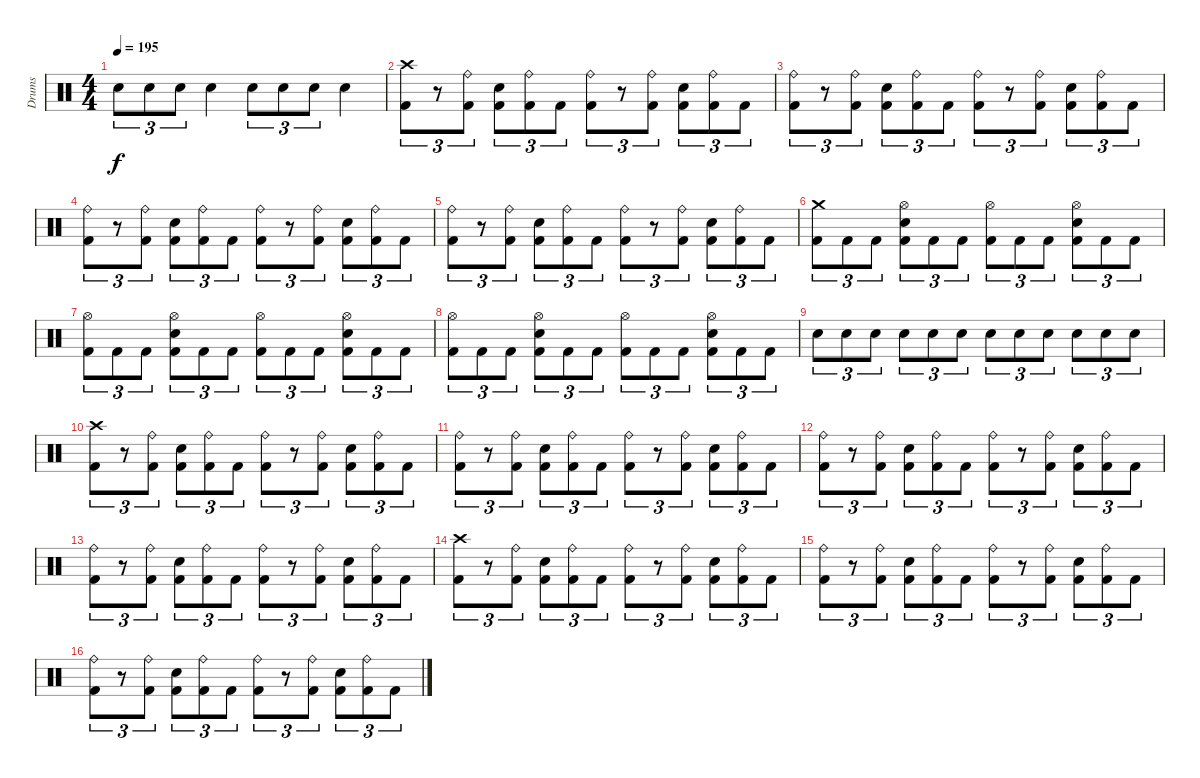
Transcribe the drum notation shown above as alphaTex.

\track ("Drums" "Drums") {instrument percussion}
\staff {score}
\articulation defaults
\ts (4 4)
\tempo 195
\clef neutral
\ks aminor "Electric Snare (hit)".8{tu (3 2) dy f} "Electric Snare (hit)".8{tu (3 2)} "Electric Snare (hit)".8{tu (3 2)} "Electric Snare (hit)".4 "Electric Snare (hit)".8{tu (3 2)} "Electric Snare (hit)".8{tu (3 2)} "Electric Snare (hit)".8{tu (3 2)} "Electric Snare (hit)".4
|
\section ("" "")
("Kick (hit) 2" "Crash high (hit)").8{tu (3 2)} r.8{tu (3 2)} ("Kick (hit) 2" "Ride (bell)").8{tu (3 2)} ("Kick (hit) 2" "Electric Snare (hit)").8{tu (3 2)} ("Kick (hit) 2" "Ride (bell)").8{tu (3 2)} "Kick (hit) 2".8{tu (3 2)} ("Kick (hit) 2" "Ride (bell)").8{tu (3 2)} r.8{tu (3 2)} ("Kick (hit) 2" "Ride (bell)").8{tu (3 2)} ("Kick (hit) 2" "Electric Snare (hit)").8{tu (3 2)} ("Kick (hit) 2" "Ride (bell)").8{tu (3 2)} "Kick (hit) 2".8{tu (3 2)} |
("Kick (hit) 2" "Ride (bell)").8{tu (3 2)} r.8{tu (3 2)} ("Kick (hit) 2" "Ride (bell)").8{tu (3 2)} ("Kick (hit) 2" "Electric Snare (hit)").8{tu (3 2)} ("Kick (hit) 2" "Ride (bell)").8{tu (3 2)} "Kick (hit) 2".8{tu (3 2)} ("Kick (hit) 2" "Ride (bell)").8{tu (3 2)} r.8{tu (3 2)} ("Kick (hit) 2" "Ride (bell)").8{tu (3 2)} ("Kick (hit) 2" "Electric Snare (hit)").8{tu (3 2)} ("Kick (hit) 2" "Ride (bell)").8{tu (3 2)} "Kick (hit) 2".8{tu (3 2)} |
("Kick (hit) 2" "Ride (bell)").8{tu (3 2)} r.8{tu (3 2)} ("Kick (hit) 2" "Ride (bell)").8{tu (3 2)} ("Kick (hit) 2" "Electric Snare (hit)").8{tu (3 2)} ("Kick (hit) 2" "Ride (bell)").8{tu (3 2)} "Kick (hit) 2".8{tu (3 2)} ("Kick (hit) 2" "Ride (bell)").8{tu (3 2)} r.8{tu (3 2)} ("Kick (hit) 2" "Ride (bell)").8{tu (3 2)} ("Kick (hit) 2" "Electric Snare (hit)").8{tu (3 2)} ("Kick (hit) 2" "Ride (bell)").8{tu (3 2)} "Kick (hit) 2".8{tu (3 2)} |
("Kick (hit) 2" "Ride (bell)").8{tu (3 2)} r.8{tu (3 2)} ("Kick (hit) 2" "Ride (bell)").8{tu (3 2)} ("Kick (hit) 2" "Electric Snare (hit)").8{tu (3 2)} ("Kick (hit) 2" "Ride (bell)").8{tu (3 2)} "Kick (hit) 2".8{tu (3 2)} ("Kick (hit) 2" "Ride (bell)").8{tu (3 2)} r.8{tu (3 2)} ("Kick (hit) 2" "Ride (bell)").8{tu (3 2)} ("Kick (hit) 2" "Electric Snare (hit)").8{tu (3 2)} ("Kick (hit) 2" "Ride (bell)").8{tu (3 2)} "Kick (hit) 2".8{tu (3 2)} |
("Kick (hit) 2" "Crash medium (hit)").8{tu (3 2)} "Kick (hit) 2".8{tu (3 2)} "Kick (hit) 2".8{tu (3 2)} ("Kick (hit) 2" "Electric Snare (hit)" "Hi-Hat (open)").8{tu (3 2)} "Kick (hit) 2".8{tu (3 2)} "Kick (hit) 2".8{tu (3 2)} ("Kick (hit) 2" "Hi-Hat (open)").8{tu (3 2)} "Kick (hit) 2".8{tu (3 2)} "Kick (hit) 2".8{tu (3 2)} ("Kick (hit) 2" "Electric Snare (hit)" "Hi-Hat (open)").8{tu (3 2)} "Kick (hit) 2".8{tu (3 2)} "Kick (hit) 2".8{tu (3 2)} |
("Kick (hit) 2" "Hi-Hat (open)").8{tu (3 2)} "Kick (hit) 2".8{tu (3 2)} "Kick (hit) 2".8{tu (3 2)} ("Kick (hit) 2" "Electric Snare (hit)" "Hi-Hat (open)").8{tu (3 2)} "Kick (hit) 2".8{tu (3 2)} "Kick (hit) 2".8{tu (3 2)} ("Kick (hit) 2" "Hi-Hat (open)").8{tu (3 2)} "Kick (hit) 2".8{tu (3 2)} "Kick (hit) 2".8{tu (3 2)} ("Kick (hit) 2" "Electric Snare (hit)" "Hi-Hat (open)").8{tu (3 2)} "Kick (hit) 2".8{tu (3 2)} "Kick (hit) 2".8{tu (3 2)} |
("Kick (hit) 2" "Hi-Hat (open)").8{tu (3 2)} "Kick (hit) 2".8{tu (3 2)} "Kick (hit) 2".8{tu (3 2)} ("Kick (hit) 2" "Electric Snare (hit)" "Hi-Hat (open)").8{tu (3 2)} "Kick (hit) 2".8{tu (3 2)} "Kick (hit) 2".8{tu (3 2)} ("Kick (hit) 2" "Hi-Hat (open)").8{tu (3 2)} "Kick (hit) 2".8{tu (3 2)} "Kick (hit) 2".8{tu (3 2)} ("Kick (hit) 2" "Electric Snare (hit)" "Hi-Hat (open)").8{tu (3 2)} "Kick (hit) 2".8{tu (3 2)} "Kick (hit) 2".8{tu (3 2)} |
"Electric Snare (hit)".8{tu (3 2)} "Electric Snare (hit)".8{tu (3 2)} "Electric Snare (hit)".8{tu (3 2)} "Electric Snare (hit)".8{tu (3 2)} "Electric Snare (hit)".8{tu (3 2)} "Electric Snare (hit)".8{tu (3 2)} "Electric Snare (hit)".8{tu (3 2)} "Electric Snare (hit)".8{tu (3 2)} "Electric Snare (hit)".8{tu (3 2)} "Electric Snare (hit)".8{tu (3 2)} "Electric Snare (hit)".8{tu (3 2)} "Electric Snare (hit)".8{tu (3 2)} |
\section ("" "")
("Kick (hit) 2" "Crash high (hit)").8{tu (3 2)} r.8{tu (3 2)} ("Kick (hit) 2" "Ride (bell)").8{tu (3 2)} ("Kick (hit) 2" "Electric Snare (hit)").8{tu (3 2)} ("Kick (hit) 2" "Ride (bell)").8{tu (3 2)} "Kick (hit) 2".8{tu (3 2)} ("Kick (hit) 2" "Ride (bell)").8{tu (3 2)} r.8{tu (3 2)} ("Kick (hit) 2" "Ride (bell)").8{tu (3 2)} ("Kick (hit) 2" "Electric Snare (hit)").8{tu (3 2)} ("Kick (hit) 2" "Ride (bell)").8{tu (3 2)} "Kick (hit) 2".8{tu (3 2)} |
("Kick (hit) 2" "Ride (bell)").8{tu (3 2)} r.8{tu (3 2)} ("Kick (hit) 2" "Ride (bell)").8{tu (3 2)} ("Kick (hit) 2" "Electric Snare (hit)").8{tu (3 2)} ("Kick (hit) 2" "Ride (bell)").8{tu (3 2)} "Kick (hit) 2".8{tu (3 2)} ("Kick (hit) 2" "Ride (bell)").8{tu (3 2)} r.8{tu (3 2)} ("Kick (hit) 2" "Ride (bell)").8{tu (3 2)} ("Kick (hit) 2" "Electric Snare (hit)").8{tu (3 2)} ("Kick (hit) 2" "Ride (bell)").8{tu (3 2)} "Kick (hit) 2".8{tu (3 2)} |
("Kick (hit) 2" "Ride (bell)").8{tu (3 2)} r.8{tu (3 2)} ("Kick (hit) 2" "Ride (bell)").8{tu (3 2)} ("Kick (hit) 2" "Electric Snare (hit)").8{tu (3 2)} ("Kick (hit) 2" "Ride (bell)").8{tu (3 2)} "Kick (hit) 2".8{tu (3 2)} ("Kick (hit) 2" "Ride (bell)").8{tu (3 2)} r.8{tu (3 2)} ("Kick (hit) 2" "Ride (bell)").8{tu (3 2)} ("Kick (hit) 2" "Electric Snare (hit)").8{tu (3 2)} ("Kick (hit) 2" "Ride (bell)").8{tu (3 2)} "Kick (hit) 2".8{tu (3 2)} |
("Kick (hit) 2" "Ride (bell)").8{tu (3 2)} r.8{tu (3 2)} ("Kick (hit) 2" "Ride (bell)").8{tu (3 2)} ("Kick (hit) 2" "Electric Snare (hit)").8{tu (3 2)} ("Kick (hit) 2" "Ride (bell)").8{tu (3 2)} "Kick (hit) 2".8{tu (3 2)} ("Kick (hit) 2" "Ride (bell)").8{tu (3 2)} r.8{tu (3 2)} ("Kick (hit) 2" "Ride (bell)").8{tu (3 2)} ("Kick (hit) 2" "Electric Snare (hit)").8{tu (3 2)} ("Kick (hit) 2" "Ride (bell)").8{tu (3 2)} "Kick (hit) 2".8{tu (3 2)} |
("Kick (hit) 2" "Crash high (hit)").8{tu (3 2)} r.8{tu (3 2)} ("Kick (hit) 2" "Ride (bell)").8{tu (3 2)} ("Kick (hit) 2" "Electric Snare (hit)").8{tu (3 2)} ("Kick (hit) 2" "Ride (bell)").8{tu (3 2)} "Kick (hit) 2".8{tu (3 2)} ("Kick (hit) 2" "Ride (bell)").8{tu (3 2)} r.8{tu (3 2)} ("Kick (hit) 2" "Ride (bell)").8{tu (3 2)} ("Kick (hit) 2" "Electric Snare (hit)").8{tu (3 2)} ("Kick (hit) 2" "Ride (bell)").8{tu (3 2)} "Kick (hit) 2".8{tu (3 2)} |
("Kick (hit) 2" "Ride (bell)").8{tu (3 2)} r.8{tu (3 2)} ("Kick (hit) 2" "Ride (bell)").8{tu (3 2)} ("Kick (hit) 2" "Electric Snare (hit)").8{tu (3 2)} ("Kick (hit) 2" "Ride (bell)").8{tu (3 2)} "Kick (hit) 2".8{tu (3 2)} ("Kick (hit) 2" "Ride (bell)").8{tu (3 2)} r.8{tu (3 2)} ("Kick (hit) 2" "Ride (bell)").8{tu (3 2)} ("Kick (hit) 2" "Electric Snare (hit)").8{tu (3 2)} ("Kick (hit) 2" "Ride (bell)").8{tu (3 2)} "Kick (hit) 2".8{tu (3 2)} |
("Kick (hit) 2" "Ride (bell)").8{tu (3 2)} r.8{tu (3 2)} ("Kick (hit) 2" "Ride (bell)").8{tu (3 2)} ("Kick (hit) 2" "Electric Snare (hit)").8{tu (3 2)} ("Kick (hit) 2" "Ride (bell)").8{tu (3 2)} "Kick (hit) 2".8{tu (3 2)} ("Kick (hit) 2" "Ride (bell)").8{tu (3 2)} r.8{tu (3 2)} ("Kick (hit) 2" "Ride (bell)").8{tu (3 2)} ("Kick (hit) 2" "Electric Snare (hit)").8{tu (3 2)} ("Kick (hit) 2" "Ride (bell)").8{tu (3 2)} "Kick (hit) 2".8{tu (3 2)}
